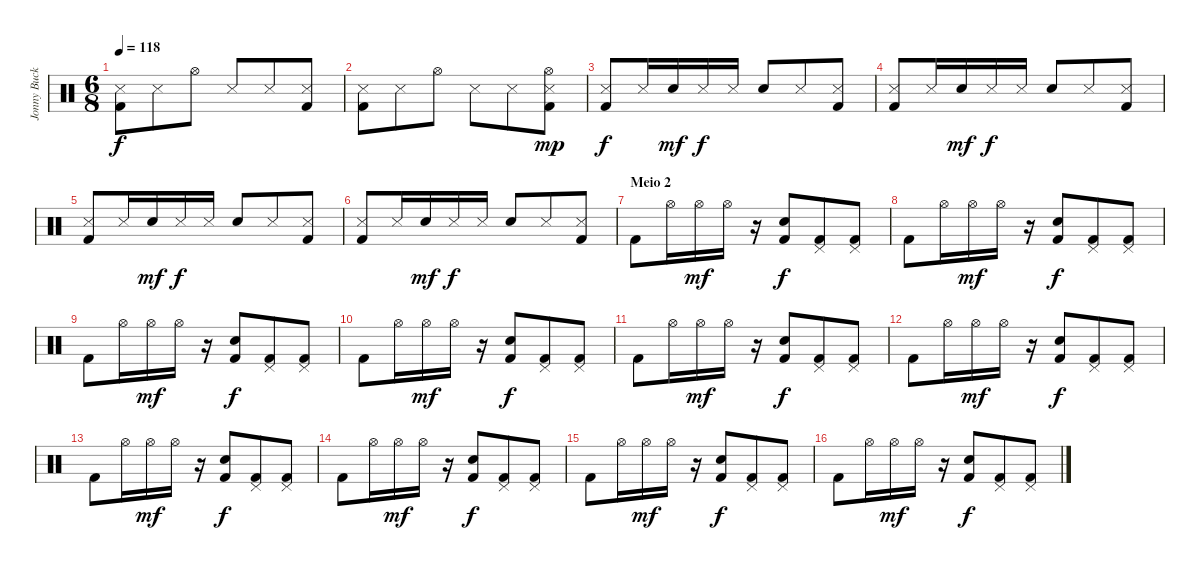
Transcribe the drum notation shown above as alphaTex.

\track ("Jonny Buckland (batera)" "Jonny Buck") {instrument percussion}
\staff {score}
\articulation defaults
\ts (6 8)
\tempo 118
\clef neutral
\ks c
("Snare (side stick) 3" "Kick (hit) 2").8{dy f} "Snare (side stick) 3".8 "Hi-Hat (open)".8 "Snare (side stick) 3".8 "Snare (side stick) 3".8 ("Snare (side stick) 3" "Kick (hit) 2").8 |
("Snare (side stick) 3" "Kick (hit) 2").8 "Snare (side stick) 3".8 "Hi-Hat (open)".8 "Snare (side stick) 3".8 "Snare (side stick) 3".8 ("Snare (side stick) 3" "Hi-Hat (open)" "Kick (hit) 2").8{dy mp} |
("Snare (side stick) 3" "Kick (hit) 2").8{dy f} "Snare (side stick) 3".16 "Snare (hit) 2".16{dy mf} "Snare (side stick) 3".16{dy f} "Snare (side stick) 3".16 "Electric Snare (hit)".8 "Snare (side stick) 3".8 ("Snare (side stick) 3" "Kick (hit) 2").8 |
("Snare (side stick) 3" "Kick (hit) 2").8 "Snare (side stick) 3".16 "Snare (hit) 2".16{dy mf} "Snare (side stick) 3".16{dy f} "Snare (side stick) 3".16 "Electric Snare (hit)".8 "Snare (side stick) 3".8 ("Snare (side stick) 3" "Kick (hit) 2").8 |
("Snare (side stick) 3" "Kick (hit) 2").8 "Snare (side stick) 3".16 "Snare (hit) 2".16{dy mf} "Snare (side stick) 3".16{dy f} "Snare (side stick) 3".16 "Electric Snare (hit)".8 "Snare (side stick) 3".8 ("Snare (side stick) 3" "Kick (hit) 2").8 |
("Snare (side stick) 3" "Kick (hit) 2").8 "Snare (side stick) 3".16 "Snare (hit) 2".16{dy mf} "Snare (side stick) 3".16{dy f} "Snare (side stick) 3".16 "Electric Snare (hit)".8 "Snare (side stick) 3".8 ("Snare (side stick) 3" "Kick (hit) 2").8 |
\section ("" "Meio 2")
"Kick (hit) 2".8 "Hi-Hat (open)".16 "Hi-Hat (open)".16{dy mf} "Hi-Hat (open)".16 r.16 ("Electric Snare (hit)" "Kick (hit) 2").8{dy f} ("Pedal Hi-Hat (hit)" "Kick (hit) 2").8 ("Pedal Hi-Hat (hit)" "Kick (hit) 2").8 |
"Kick (hit) 2".8 "Hi-Hat (open)".16 "Hi-Hat (open)".16{dy mf} "Hi-Hat (open)".16 r.16 ("Electric Snare (hit)" "Kick (hit) 2").8{dy f} ("Pedal Hi-Hat (hit)" "Kick (hit) 2").8 ("Pedal Hi-Hat (hit)" "Kick (hit) 2").8 |
"Kick (hit) 2".8 "Hi-Hat (open)".16 "Hi-Hat (open)".16{dy mf} "Hi-Hat (open)".16 r.16 ("Electric Snare (hit)" "Kick (hit) 2").8{dy f} ("Pedal Hi-Hat (hit)" "Kick (hit) 2").8 ("Pedal Hi-Hat (hit)" "Kick (hit) 2").8 |
"Kick (hit) 2".8 "Hi-Hat (open)".16 "Hi-Hat (open)".16{dy mf} "Hi-Hat (open)".16 r.16 ("Electric Snare (hit)" "Kick (hit) 2").8{dy f} ("Pedal Hi-Hat (hit)" "Kick (hit) 2").8 ("Pedal Hi-Hat (hit)" "Kick (hit) 2").8 |
"Kick (hit) 2".8 "Hi-Hat (open)".16 "Hi-Hat (open)".16{dy mf} "Hi-Hat (open)".16 r.16 ("Electric Snare (hit)" "Kick (hit) 2").8{dy f} ("Pedal Hi-Hat (hit)" "Kick (hit) 2").8 ("Pedal Hi-Hat (hit)" "Kick (hit) 2").8 |
"Kick (hit) 2".8 "Hi-Hat (open)".16 "Hi-Hat (open)".16{dy mf} "Hi-Hat (open)".16 r.16 ("Electric Snare (hit)" "Kick (hit) 2").8{dy f} ("Pedal Hi-Hat (hit)" "Kick (hit) 2").8 ("Pedal Hi-Hat (hit)" "Kick (hit) 2").8 |
"Kick (hit) 2".8 "Hi-Hat (open)".16 "Hi-Hat (open)".16{dy mf} "Hi-Hat (open)".16 r.16 ("Electric Snare (hit)" "Kick (hit) 2").8{dy f} ("Pedal Hi-Hat (hit)" "Kick (hit) 2").8 ("Pedal Hi-Hat (hit)" "Kick (hit) 2").8 |
"Kick (hit) 2".8 "Hi-Hat (open)".16 "Hi-Hat (open)".16{dy mf} "Hi-Hat (open)".16 r.16 ("Electric Snare (hit)" "Kick (hit) 2").8{dy f} ("Pedal Hi-Hat (hit)" "Kick (hit) 2").8 ("Pedal Hi-Hat (hit)" "Kick (hit) 2").8 |
"Kick (hit) 2".8 "Hi-Hat (open)".16 "Hi-Hat (open)".16{dy mf} "Hi-Hat (open)".16 r.16 ("Electric Snare (hit)" "Kick (hit) 2").8{dy f} ("Pedal Hi-Hat (hit)" "Kick (hit) 2").8 ("Pedal Hi-Hat (hit)" "Kick (hit) 2").8 |
"Kick (hit) 2".8 "Hi-Hat (open)".16 "Hi-Hat (open)".16{dy mf} "Hi-Hat (open)".16 r.16 ("Electric Snare (hit)" "Kick (hit) 2").8{dy f} ("Pedal Hi-Hat (hit)" "Kick (hit) 2").8 ("Pedal Hi-Hat (hit)" "Kick (hit) 2").8
